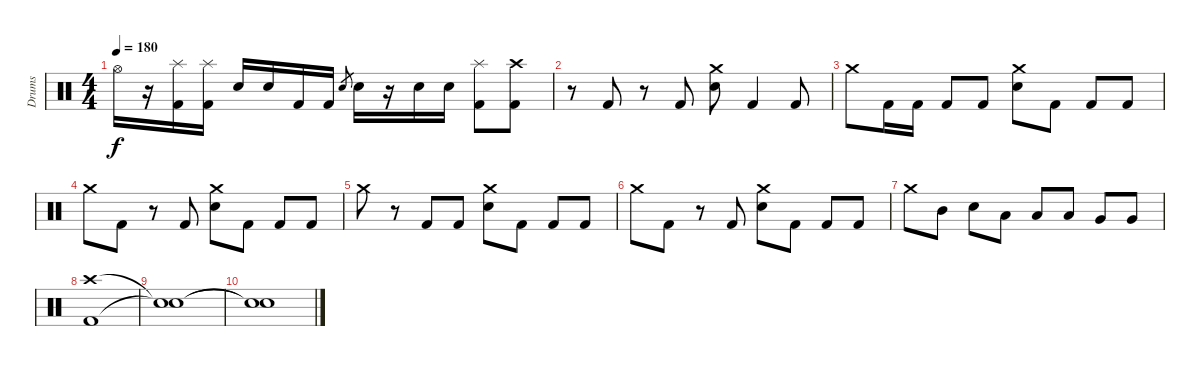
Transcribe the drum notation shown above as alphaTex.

\track ("Drums" "Drums") {instrument percussion}
\staff {score}
\articulation defaults
\ts (4 4)
\tempo 180
\clef neutral
\ks c "Hi-Hat (open)".16{dy f}
r.16 ("Splash (hit)" "Kick (hit) 2").16 ("Splash (hit)" "Kick (hit) 2").16 "Electric Snare (hit)".16 "Electric Snare (hit)".16 "Kick (hit) 2".16 "Kick (hit) 2".16 "Electric Snare (hit)".8{gr} "Electric Snare (hit)".16 r.16 "Electric Snare (hit)".16 "Electric Snare (hit)".16 ("Splash (hit)" "Kick (hit) 2").8 ("Crash high (hit)" "Kick (hit) 2").8 |
r.8 "Kick (hit) 2".8 r.8 "Kick (hit) 2".8 ("Crash medium (hit)" "Electric Snare (hit)").8 "Kick (hit) 2".4 "Kick (hit) 2".8 |
"Crash medium (hit)".8 "Kick (hit) 2".16 "Kick (hit) 2".16 "Kick (hit) 2".8 "Kick (hit) 2".8 ("Crash medium (hit)" "Electric Snare (hit)").8 "Kick (hit) 2".8 "Kick (hit) 2".8 "Kick (hit) 2".8 |
"Crash medium (hit)".8 "Kick (hit) 2".8 r.8 "Kick (hit) 2".8 ("Crash medium (hit)" "Electric Snare (hit)").8 "Kick (hit) 2".8 "Kick (hit) 2".8 "Kick (hit) 2".8 |
"Crash medium (hit)".8 r.8 "Kick (hit) 2".8 "Kick (hit) 2".8 ("Crash medium (hit)" "Electric Snare (hit)").8 "Kick (hit) 2".8 "Kick (hit) 2".8 "Kick (hit) 2".8 |
"Crash medium (hit)".8 "Kick (hit) 2".8 r.8 "Kick (hit) 2".8 ("Crash medium (hit)" "Electric Snare (hit)").8 "Kick (hit) 2".8 "Kick (hit) 2".8 "Kick (hit) 2".8 |
"Crash medium (hit)".8 "Mid Tom (hit)".8 "Electric Snare (hit)".8 "Low Tom (hit)".8 "Low Tom (hit)".8 "Low Tom (hit)".8 "Very Low Tom (hit)".8 "Very Low Tom (hit)".8 |
("Kick (hit) 2" "Crash high (hit)").1 |
("Snare (hit)"{t} "Snare (hit)"{t}).1 |
("Snare (hit)"{t} "Snare (hit)"{t}).1
